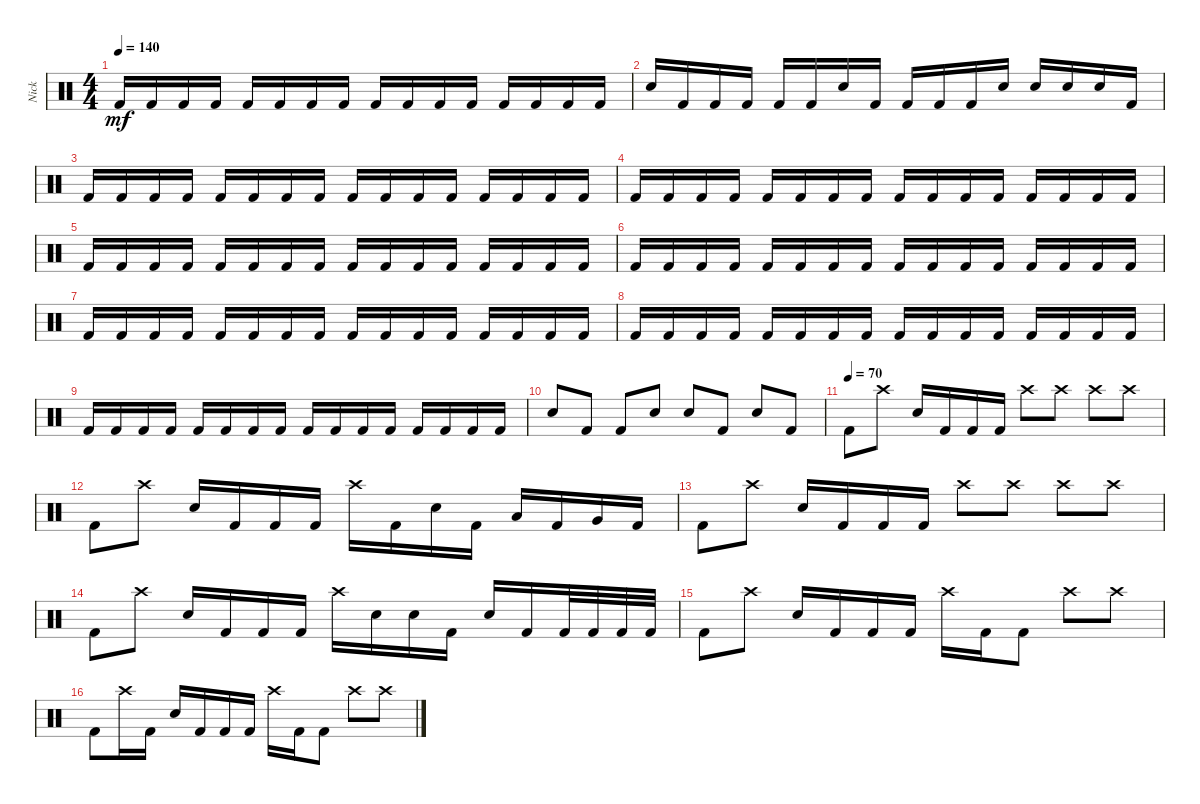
\track ("Nick " "Nick ") {instrument percussion}
\staff {score}
\articulation defaults
\ts (4 4)
\tempo 140
\clef neutral
\ks c "Kick (hit) 2".16{dy mf} "Kick (hit) 2".16 "Kick (hit) 2".16 "Kick (hit) 2".16 "Kick (hit) 2".16 "Kick (hit) 2".16 "Kick (hit) 2".16 "Kick (hit) 2".16 "Kick (hit) 2".16 "Kick (hit) 2".16 "Kick (hit) 2".16 "Kick (hit) 2".16 "Kick (hit) 2".16 "Kick (hit) 2".16 "Kick (hit) 2".16 "Kick (hit) 2".16
|
"Snare (hit) 2".16 "Kick (hit) 2".16 "Kick (hit) 2".16 "Kick (hit) 2".16 "Kick (hit) 2".16 "Kick (hit) 2".16 "Snare (hit) 2".16 "Kick (hit) 2".16 "Kick (hit) 2".16 "Kick (hit) 2".16 "Kick (hit) 2".16 "Snare (hit) 2".16 "Snare (hit) 2".16 "Snare (hit) 2".16 "Snare (hit) 2".16 "Kick (hit) 2".16 |
"Kick (hit) 2".16 "Kick (hit) 2".16 "Kick (hit) 2".16 "Kick (hit) 2".16 "Kick (hit) 2".16 "Kick (hit) 2".16 "Kick (hit) 2".16 "Kick (hit) 2".16 "Kick (hit) 2".16 "Kick (hit) 2".16 "Kick (hit) 2".16 "Kick (hit) 2".16 "Kick (hit) 2".16 "Kick (hit) 2".16 "Kick (hit) 2".16 "Kick (hit) 2".16 |
"Kick (hit) 2".16 "Kick (hit) 2".16 "Kick (hit) 2".16 "Kick (hit) 2".16 "Kick (hit) 2".16 "Kick (hit) 2".16 "Kick (hit) 2".16 "Kick (hit) 2".16 "Kick (hit) 2".16 "Kick (hit) 2".16 "Kick (hit) 2".16 "Kick (hit) 2".16 "Kick (hit) 2".16 "Kick (hit) 2".16 "Kick (hit) 2".16 "Kick (hit) 2".16 |
"Kick (hit) 2".16 "Kick (hit) 2".16 "Kick (hit) 2".16 "Kick (hit) 2".16 "Kick (hit) 2".16 "Kick (hit) 2".16 "Kick (hit) 2".16 "Kick (hit) 2".16 "Kick (hit) 2".16 "Kick (hit) 2".16 "Kick (hit) 2".16 "Kick (hit) 2".16 "Kick (hit) 2".16 "Kick (hit) 2".16 "Kick (hit) 2".16 "Kick (hit) 2".16 |
"Kick (hit) 2".16 "Kick (hit) 2".16 "Kick (hit) 2".16 "Kick (hit) 2".16 "Kick (hit) 2".16 "Kick (hit) 2".16 "Kick (hit) 2".16 "Kick (hit) 2".16 "Kick (hit) 2".16 "Kick (hit) 2".16 "Kick (hit) 2".16 "Kick (hit) 2".16 "Kick (hit) 2".16 "Kick (hit) 2".16 "Kick (hit) 2".16 "Kick (hit) 2".16 |
"Kick (hit) 2".16 "Kick (hit) 2".16 "Kick (hit) 2".16 "Kick (hit) 2".16 "Kick (hit) 2".16 "Kick (hit) 2".16 "Kick (hit) 2".16 "Kick (hit) 2".16 "Kick (hit) 2".16 "Kick (hit) 2".16 "Kick (hit) 2".16 "Kick (hit) 2".16 "Kick (hit) 2".16 "Kick (hit) 2".16 "Kick (hit) 2".16 "Kick (hit) 2".16 |
"Kick (hit) 2".16 "Kick (hit) 2".16 "Kick (hit) 2".16 "Kick (hit) 2".16 "Kick (hit) 2".16 "Kick (hit) 2".16 "Kick (hit) 2".16 "Kick (hit) 2".16 "Kick (hit) 2".16 "Kick (hit) 2".16 "Kick (hit) 2".16 "Kick (hit) 2".16 "Kick (hit) 2".16 "Kick (hit) 2".16 "Kick (hit) 2".16 "Kick (hit) 2".16 |
"Kick (hit) 2".16 "Kick (hit) 2".16 "Kick (hit) 2".16 "Kick (hit) 2".16 "Kick (hit) 2".16 "Kick (hit) 2".16 "Kick (hit) 2".16 "Kick (hit) 2".16 "Kick (hit) 2".16 "Kick (hit) 2".16 "Kick (hit) 2".16 "Kick (hit) 2".16 "Kick (hit) 2".16 "Kick (hit) 2".16 "Kick (hit) 2".16 "Kick (hit) 2".16 |
"Snare (hit) 2".8 "Kick (hit) 2".8 "Kick (hit) 2".8 "Snare (hit) 2".8 "Snare (hit) 2".8 "Kick (hit) 2".8 "Snare (hit) 2".8 "Kick (hit) 2".8 |
\tempo (70)
"Kick (hit) 2".8 "Crash high (hit)".8 "Snare (hit) 2".16 "Kick (hit) 2".16 "Kick (hit) 2".16 "Kick (hit) 2".16 "Crash high (hit)".8 "Crash high (hit)".8 "Crash high (hit)".8 "Crash high (hit)".8 |
"Kick (hit) 2".8 "Crash high (hit)".8 "Snare (hit) 2".16 "Kick (hit) 2".16 "Kick (hit) 2".16 "Kick (hit) 2".16 "Crash high (hit)".16 "Kick (hit) 2".16 "Snare (hit) 2".16 "Kick (hit) 2".16 "Low Tom (hit)".16 "Kick (hit) 2".16 "Very Low Tom (hit)".16 "Kick (hit) 2".16 |
"Kick (hit) 2".8 "Crash high (hit)".8 "Snare (hit) 2".16 "Kick (hit) 2".16 "Kick (hit) 2".16 "Kick (hit) 2".16 "Crash high (hit)".8 "Crash high (hit)".8 "Crash high (hit)".8 "Crash high (hit)".8 |
"Kick (hit) 2".8 "Crash high (hit)".8 "Snare (hit) 2".16 "Kick (hit) 2".16 "Kick (hit) 2".16 "Kick (hit) 2".16 "Crash high (hit)".16 "Snare (hit) 2".16 "Snare (hit) 2".16 "Kick (hit) 2".16 "Snare (hit) 2".16 "Kick (hit) 2".16 "Kick (hit) 2".32 "Kick (hit) 2".32 "Kick (hit) 2".32 "Kick (hit) 2".32 |
"Kick (hit) 2".8 "Crash high (hit)".8 "Snare (hit) 2".16 "Kick (hit) 2".16 "Kick (hit) 2".16 "Kick (hit) 2".16 "Crash high (hit)".16 "Kick (hit) 2".16 "Kick (hit) 2".8 "Crash high (hit)".8 "Crash high (hit)".8 |
"Kick (hit) 2".8 "Crash high (hit)".16 "Kick (hit) 2".16 "Snare (hit) 2".16 "Kick (hit) 2".16 "Kick (hit) 2".16 "Kick (hit) 2".16 "Crash high (hit)".16 "Kick (hit) 2".16 "Kick (hit) 2".8 "Crash high (hit)".8 "Crash high (hit)".8
